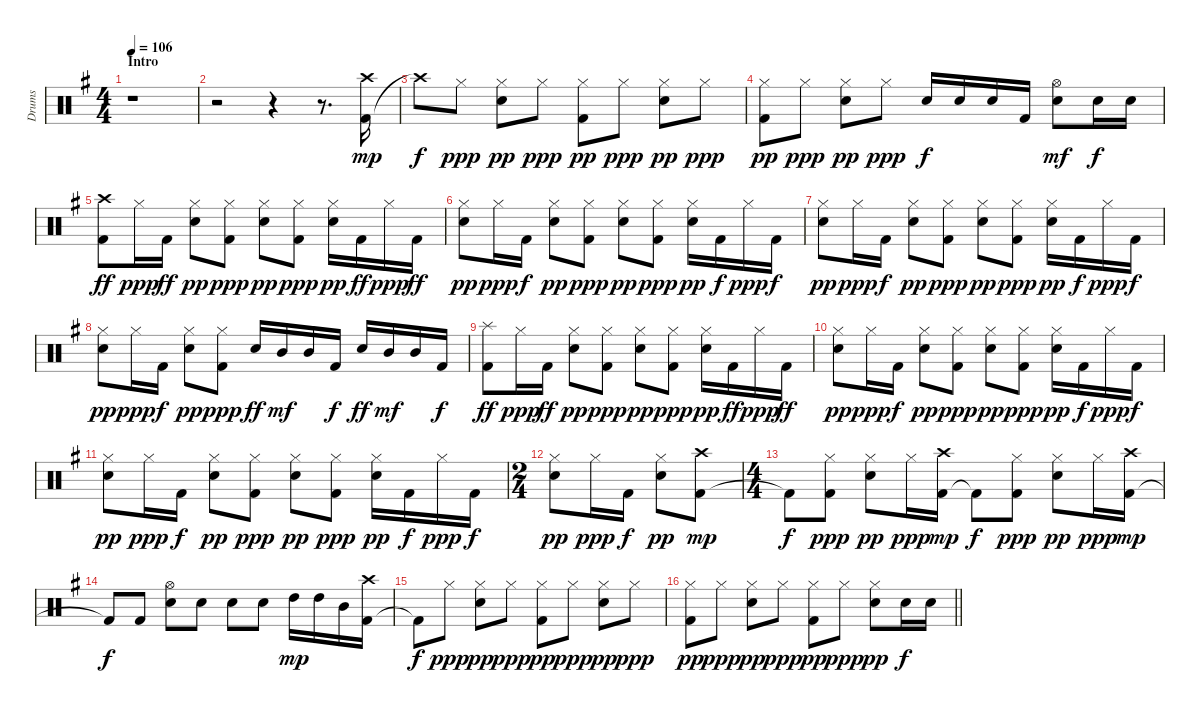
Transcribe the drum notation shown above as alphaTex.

\track ("Drums" "Drums") {instrument percussion}
\staff {score}
\articulation defaults
\ts (4 4)
\section ("" "Intro")
\tempo 106
\clef neutral
\ks g
r.1{dy mp} |
r.2 r.4 r.8{d} ("Kick (hit) 2" "Crash high (hit)").16 |
"Crash high (hit)"{t}.8{dy f} "Hi-Hat (closed)".8{dy ppp} ("Hi-Hat (closed)" "Electric Snare (hit)").8{dy pp} "Hi-Hat (closed)".8{dy ppp} ("Hi-Hat (closed)" "Kick (hit) 2").8{dy pp} "Hi-Hat (closed)".8{dy ppp} ("Hi-Hat (closed)" "Electric Snare (hit)").8{dy pp} "Hi-Hat (closed)".8{dy ppp} |
("Hi-Hat (closed)" "Kick (hit) 2").8{dy pp} "Hi-Hat (closed)".8{dy ppp} ("Hi-Hat (closed)" "Electric Snare (hit)").8{dy pp} "Hi-Hat (closed)".8{dy ppp} "Electric Snare (hit)".16{dy f} "Electric Snare (hit)".16 "Electric Snare (hit)".16 "Kick (hit) 2".16 ("Electric Snare (hit)" "Hi-Hat (open)").8{dy mf} "Electric Snare (hit)".16{dy f} "Electric Snare (hit)".16 |
("Crash high (hit)" "Kick (hit) 2").8{dy ff} "Hi-Hat (closed)".16{dy ppp} "Kick (hit) 2".16{dy ff} ("Electric Snare (hit)" "Hi-Hat (closed)").8{dy pp} ("Kick (hit) 2" "Hi-Hat (closed)").8{dy ppp} ("Electric Snare (hit)" "Hi-Hat (closed)").8{dy pp} ("Kick (hit) 2" "Hi-Hat (closed)").8{dy ppp} ("Electric Snare (hit)" "Hi-Hat (closed)").16{dy pp} "Kick (hit) 2".16{dy ff} "Hi-Hat (closed)".16{dy ppp} "Kick (hit) 2".16{dy ff} |
("Electric Snare (hit)" "Hi-Hat (closed)").8{dy pp} "Hi-Hat (closed)".16{dy ppp} "Kick (hit) 2".16{dy f} ("Electric Snare (hit)" "Hi-Hat (closed)").8{dy pp} ("Kick (hit) 2" "Hi-Hat (closed)").8{dy ppp} ("Electric Snare (hit)" "Hi-Hat (closed)").8{dy pp} ("Kick (hit) 2" "Hi-Hat (closed)").8{dy ppp} ("Electric Snare (hit)" "Hi-Hat (closed)").16{dy pp} "Kick (hit) 2".16{dy f} "Hi-Hat (closed)".16{dy ppp} "Kick (hit) 2".16{dy f} |
("Electric Snare (hit)" "Hi-Hat (closed)").8{dy pp} "Hi-Hat (closed)".16{dy ppp} "Kick (hit) 2".16{dy f} ("Electric Snare (hit)" "Hi-Hat (closed)").8{dy pp} ("Kick (hit) 2" "Hi-Hat (closed)").8{dy ppp} ("Electric Snare (hit)" "Hi-Hat (closed)").8{dy pp} ("Kick (hit) 2" "Hi-Hat (closed)").8{dy ppp} ("Electric Snare (hit)" "Hi-Hat (closed)").16{dy pp} "Kick (hit) 2".16{dy f} "Hi-Hat (closed)".16{dy ppp} "Kick (hit) 2".16{dy f} |
("Electric Snare (hit)" "Hi-Hat (closed)").8{dy pp} "Hi-Hat (closed)".16{dy ppp} "Kick (hit) 2".16{dy f} ("Electric Snare (hit)" "Hi-Hat (closed)").8{dy pp} ("Kick (hit) 2" "Hi-Hat (closed)").8{dy ppp} "Electric Snare (hit)".16{dy ff} "Mid Tom (hit)".16{dy mf} "Mid Tom (hit)".16 "Kick (hit) 2".16{dy f} "Electric Snare (hit)".16{dy ff} "Mid Tom (hit)".16{dy mf} "Mid Tom (hit)".16 "Kick (hit) 2".16{dy f} |
("Splash (hit)" "Kick (hit) 2").8{dy ff} "Hi-Hat (closed)".16{dy ppp} "Kick (hit) 2".16{dy ff} ("Electric Snare (hit)" "Hi-Hat (closed)").8{dy pp} ("Kick (hit) 2" "Hi-Hat (closed)").8{dy ppp} ("Electric Snare (hit)" "Hi-Hat (closed)").8{dy pp} ("Kick (hit) 2" "Hi-Hat (closed)").8{dy ppp} ("Electric Snare (hit)" "Hi-Hat (closed)").16{dy pp} "Kick (hit) 2".16{dy ff} "Hi-Hat (closed)".16{dy ppp} "Kick (hit) 2".16{dy ff} |
("Electric Snare (hit)" "Hi-Hat (closed)").8{dy pp} "Hi-Hat (closed)".16{dy ppp} "Kick (hit) 2".16{dy f} ("Electric Snare (hit)" "Hi-Hat (closed)").8{dy pp} ("Kick (hit) 2" "Hi-Hat (closed)").8{dy ppp} ("Electric Snare (hit)" "Hi-Hat (closed)").8{dy pp} ("Kick (hit) 2" "Hi-Hat (closed)").8{dy ppp} ("Electric Snare (hit)" "Hi-Hat (closed)").16{dy pp} "Kick (hit) 2".16{dy f} "Hi-Hat (closed)".16{dy ppp} "Kick (hit) 2".16{dy f} |
("Electric Snare (hit)" "Hi-Hat (closed)").8{dy pp} "Hi-Hat (closed)".16{dy ppp} "Kick (hit) 2".16{dy f} ("Electric Snare (hit)" "Hi-Hat (closed)").8{dy pp} ("Kick (hit) 2" "Hi-Hat (closed)").8{dy ppp} ("Electric Snare (hit)" "Hi-Hat (closed)").8{dy pp} ("Kick (hit) 2" "Hi-Hat (closed)").8{dy ppp} ("Electric Snare (hit)" "Hi-Hat (closed)").16{dy pp} "Kick (hit) 2".16{dy f} "Hi-Hat (closed)".16{dy ppp} "Kick (hit) 2".16{dy f} |
\ts (2 4)
("Electric Snare (hit)" "Hi-Hat (closed)").8{dy pp} "Hi-Hat (closed)".16{dy ppp} "Kick (hit) 2".16{dy f} ("Electric Snare (hit)" "Hi-Hat (closed)").8{dy pp} ("Kick (hit) 2" "Crash high (hit)").8{dy mp} |
\ts (4 4)
"Kick (hit) 2"{t}.8{dy f} ("Kick (hit) 2" "Hi-Hat (closed)").8{dy ppp} ("Electric Snare (hit)" "Hi-Hat (closed)").8{dy pp} "Hi-Hat (closed)".16{dy ppp} ("Kick (hit) 2" "Crash high (hit)").16{dy mp} "Kick (hit) 2"{t}.8{dy f} ("Kick (hit) 2" "Hi-Hat (closed)").8{dy ppp} ("Electric Snare (hit)" "Hi-Hat (closed)").8{dy pp} "Hi-Hat (closed)".16{dy ppp} ("Kick (hit) 2" "Crash high (hit)").16{dy mp} |
"Kick (hit) 2"{t}.8{dy f} "Kick (hit) 2".8 ("Electric Snare (hit)" "Hi-Hat (open)").8 "Electric Snare (hit)".8 "Electric Snare (hit)".8 "Electric Snare (hit)".8 "High Tom (hit)".16{dy mp} "High Tom (hit)".16 "Mid Tom (hit)".16 ("Kick (hit) 2" "Crash high (hit)").16 |
"Kick (hit) 2"{t}.8{dy f} "Hi-Hat (closed)".8{dy ppp} ("Hi-Hat (closed)" "Electric Snare (hit)").8{dy pp} "Hi-Hat (closed)".8{dy ppp} ("Hi-Hat (closed)" "Kick (hit) 2").8{dy pp} "Hi-Hat (closed)".8{dy ppp} ("Hi-Hat (closed)" "Electric Snare (hit)").8{dy pp} "Hi-Hat (closed)".8{dy ppp} |
\barLineRight lightlight
("Hi-Hat (closed)" "Kick (hit) 2").8{dy pp} "Hi-Hat (closed)".8{dy ppp} ("Hi-Hat (closed)" "Electric Snare (hit)").8{dy pp} "Hi-Hat (closed)".8{dy ppp} ("Hi-Hat (closed)" "Kick (hit) 2").8{dy pp} "Hi-Hat (closed)".8{dy ppp} ("Hi-Hat (closed)" "Electric Snare (hit)").8{dy pp} "Electric Snare (hit)".16{dy f} "Electric Snare (hit)".16
